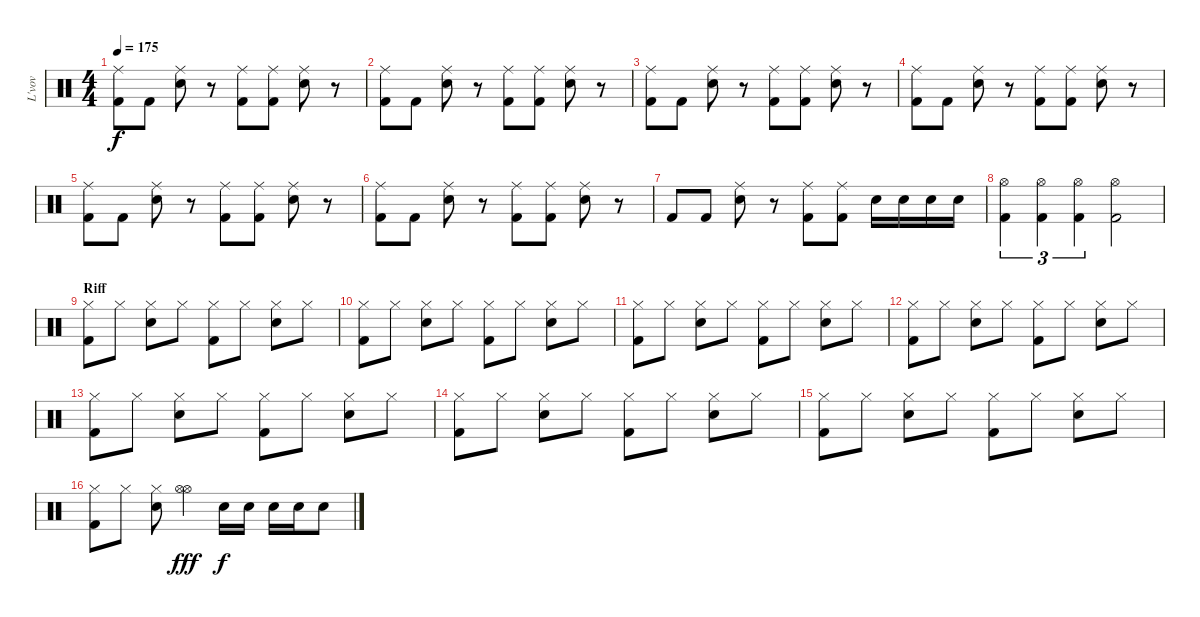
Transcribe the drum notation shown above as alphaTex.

\track ("L'vov" "L'vov") {instrument percussion}
\staff {score}
\articulation defaults
\ts (4 4)
\tempo 175
\clef neutral
\ks c
("Kick (hit) 2" "Ride (middle)").8{dy f} "Kick (hit) 2".8 ("Snare (hit) 2" "Ride (middle)").8 r.8 ("Kick (hit) 2" "Ride (middle)").8 ("Kick (hit) 2" "Ride (middle)").8 ("Snare (hit) 2" "Ride (middle)").8 r.8 |
("Kick (hit) 2" "Ride (middle)").8 "Kick (hit) 2".8 ("Snare (hit) 2" "Ride (middle)").8 r.8 ("Kick (hit) 2" "Ride (middle)").8 ("Kick (hit) 2" "Ride (middle)").8 ("Snare (hit) 2" "Ride (middle)").8 r.8 |
("Kick (hit) 2" "Ride (middle)").8 "Kick (hit) 2".8 ("Snare (hit) 2" "Ride (middle)").8 r.8 ("Kick (hit) 2" "Ride (middle)").8 ("Kick (hit) 2" "Ride (middle)").8 ("Snare (hit) 2" "Ride (middle)").8 r.8 |
("Kick (hit) 2" "Ride (middle)").8 "Kick (hit) 2".8 ("Snare (hit) 2" "Ride (middle)").8 r.8 ("Kick (hit) 2" "Ride (middle)").8 ("Kick (hit) 2" "Ride (middle)").8 ("Snare (hit) 2" "Ride (middle)").8 r.8 |
("Kick (hit) 2" "Ride (middle)").8 "Kick (hit) 2".8 ("Snare (hit) 2" "Ride (middle)").8 r.8 ("Kick (hit) 2" "Ride (middle)").8 ("Kick (hit) 2" "Ride (middle)").8 ("Snare (hit) 2" "Ride (middle)").8 r.8 |
("Kick (hit) 2" "Ride (middle)").8 "Kick (hit) 2".8 ("Snare (hit) 2" "Ride (middle)").8 r.8 ("Kick (hit) 2" "Ride (middle)").8 ("Kick (hit) 2" "Ride (middle)").8 ("Snare (hit) 2" "Ride (middle)").8 r.8 |
"Kick (hit) 2".8 "Kick (hit) 2".8 ("Snare (hit) 2" "Ride (middle)").8 r.8 ("Kick (hit) 2" "Ride (middle)").8 ("Kick (hit) 2" "Ride (middle)").8 "Snare (hit) 2".16 "Snare (hit) 2".16 "Snare (hit) 2".16 "Snare (hit) 2".16 |
("Kick (hit) 2" "Hi-Hat (open)").4{tu (3 2)} ("Kick (hit) 2" "Hi-Hat (open)").4{tu (3 2)} ("Kick (hit) 2" "Hi-Hat (open)").4{tu (3 2)} ("Kick (hit) 2" "Hi-Hat (open)").2 |
\section ("" "Riff")
("Hi-Hat (closed)" "Kick (hit) 2").8 "Hi-Hat (closed)".8 ("Hi-Hat (closed)" "Snare (hit) 2").8 "Hi-Hat (closed)".8 ("Hi-Hat (closed)" "Kick (hit) 2").8 "Hi-Hat (closed)".8 ("Hi-Hat (closed)" "Snare (hit) 2").8 "Hi-Hat (closed)".8 |
("Hi-Hat (closed)" "Kick (hit) 2").8 "Hi-Hat (closed)".8 ("Hi-Hat (closed)" "Snare (hit) 2").8 "Hi-Hat (closed)".8 ("Hi-Hat (closed)" "Kick (hit) 2").8 "Hi-Hat (closed)".8 ("Hi-Hat (closed)" "Snare (hit) 2").8 "Hi-Hat (closed)".8 |
("Hi-Hat (closed)" "Kick (hit) 2").8 "Hi-Hat (closed)".8 ("Hi-Hat (closed)" "Snare (hit) 2").8 "Hi-Hat (closed)".8 ("Hi-Hat (closed)" "Kick (hit) 2").8 "Hi-Hat (closed)".8 ("Hi-Hat (closed)" "Snare (hit) 2").8 "Hi-Hat (closed)".8 |
("Hi-Hat (closed)" "Kick (hit) 2").8 "Hi-Hat (closed)".8 ("Hi-Hat (closed)" "Snare (hit) 2").8 "Hi-Hat (closed)".8 ("Hi-Hat (closed)" "Kick (hit) 2").8 "Hi-Hat (closed)".8 ("Hi-Hat (closed)" "Snare (hit) 2").8 "Hi-Hat (closed)".8 |
("Hi-Hat (closed)" "Kick (hit) 2").8 "Hi-Hat (closed)".8 ("Hi-Hat (closed)" "Snare (hit) 2").8 "Hi-Hat (closed)".8 ("Hi-Hat (closed)" "Kick (hit) 2").8 "Hi-Hat (closed)".8 ("Hi-Hat (closed)" "Snare (hit) 2").8 "Hi-Hat (closed)".8 |
("Hi-Hat (closed)" "Kick (hit) 2").8 "Hi-Hat (closed)".8 ("Hi-Hat (closed)" "Snare (hit) 2").8 "Hi-Hat (closed)".8 ("Hi-Hat (closed)" "Kick (hit) 2").8 "Hi-Hat (closed)".8 ("Hi-Hat (closed)" "Snare (hit) 2").8 "Hi-Hat (closed)".8 |
("Hi-Hat (closed)" "Kick (hit) 2").8 "Hi-Hat (closed)".8 ("Hi-Hat (closed)" "Snare (hit) 2").8 "Hi-Hat (closed)".8 ("Hi-Hat (closed)" "Kick (hit) 2").8 "Hi-Hat (closed)".8 ("Hi-Hat (closed)" "Snare (hit) 2").8 "Hi-Hat (closed)".8 |
("Hi-Hat (closed)" "Kick (hit) 2").8 "Hi-Hat (closed)".8 ("Hi-Hat (closed)" "Snare (hit) 2").8 ("Hi-Hat (open)" "Hi-Hat (open)").4{dy fff} "Snare (hit) 2".16{dy f} "Snare (hit) 2".16 "Snare (hit) 2".16 "Snare (hit) 2".16 "Snare (hit) 2".8
